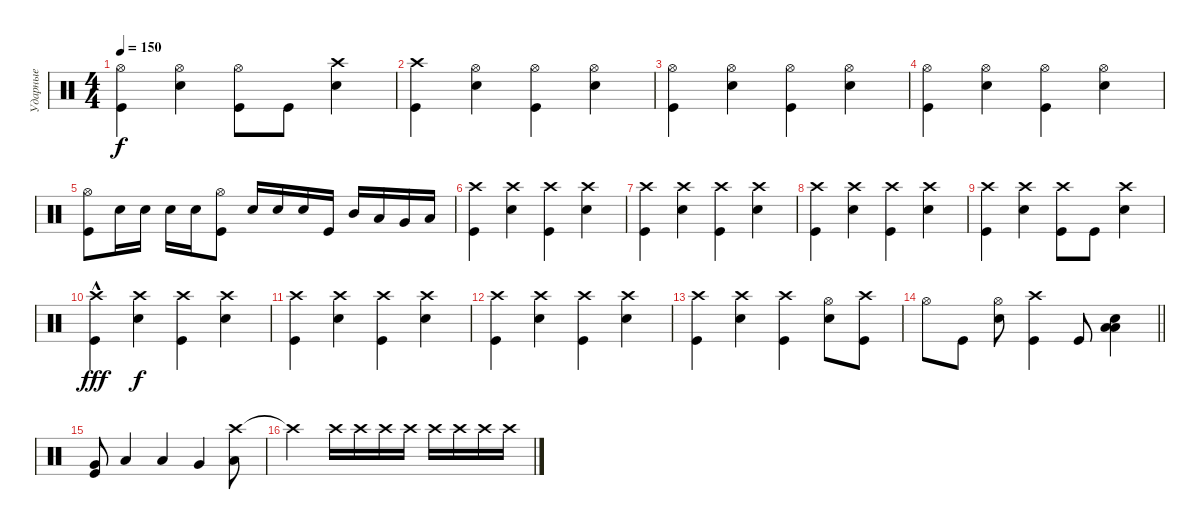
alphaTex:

\track ("Ударные" "Ударные") {instrument percussion}
\staff {score}
\articulation defaults
\ts (4 4)
\tempo 150
\clef neutral
\ks c
("Hi-Hat (open)" "Kick (hit)").4{dy f} ("Hi-Hat (open)" "Snare (hit) 2").4 ("Hi-Hat (open)" "Kick (hit)").8 "Kick (hit)".8 ("Crash high (hit)" "Snare (hit) 2").4 |
("Crash high (hit)" "Kick (hit)").4 ("Hi-Hat (open)" "Snare (hit) 2").4 ("Hi-Hat (open)" "Kick (hit)").4 ("Hi-Hat (open)" "Snare (hit) 2").4 |
("Hi-Hat (open)" "Kick (hit)").4 ("Hi-Hat (open)" "Snare (hit) 2").4 ("Hi-Hat (open)" "Kick (hit)").4 ("Hi-Hat (open)" "Snare (hit) 2").4 |
("Hi-Hat (open)" "Kick (hit)").4 ("Hi-Hat (open)" "Snare (hit) 2").4 ("Hi-Hat (open)" "Kick (hit)").4 ("Hi-Hat (open)" "Snare (hit) 2").4 |
("Hi-Hat (open)" "Kick (hit)").8 "Snare (hit) 2".16 "Snare (hit) 2".16 "Snare (hit) 2".16 "Snare (hit) 2".16 ("Hi-Hat (open)" "Kick (hit)").8 "Snare (hit) 2".16 "Snare (hit) 2".16 "Snare (hit) 2".16 "Kick (hit)".16 "Mid Tom (hit)".16 "Low Tom (hit)".16 "Very Low Tom (hit)".16 "Low Floor Tom (hit)".16 |
("Crash high (hit)" "Kick (hit)").4 ("Crash high (hit)" "Snare (hit) 2").4 ("Crash high (hit)" "Kick (hit)").4 ("Crash high (hit)" "Snare (hit) 2").4 |
("Crash high (hit)" "Kick (hit)").4 ("Crash high (hit)" "Snare (hit) 2").4 ("Crash high (hit)" "Kick (hit)").4 ("Crash high (hit)" "Snare (hit) 2").4 |
("Crash high (hit)" "Kick (hit)").4 ("Crash high (hit)" "Snare (hit) 2").4 ("Crash high (hit)" "Kick (hit)").4 ("Crash high (hit)" "Snare (hit) 2").4 |
("Crash high (hit)" "Kick (hit)").4 ("Crash high (hit)" "Snare (hit) 2").4 ("Crash high (hit)" "Kick (hit)").8 "Kick (hit)".8 ("Crash high (hit)" "Snare (hit) 2").4 |
("Crash high (hit)"{hac} "Kick (hit)").4{dy fff} ("Crash high (hit)" "Snare (hit) 2").4{dy f} ("Crash high (hit)" "Kick (hit)").4 ("Crash high (hit)" "Snare (hit) 2").4 |
("Crash high (hit)" "Kick (hit)").4 ("Crash high (hit)" "Snare (hit) 2").4 ("Crash high (hit)" "Kick (hit)").4 ("Crash high (hit)" "Snare (hit) 2").4 |
("Crash high (hit)" "Kick (hit)").4 ("Crash high (hit)" "Snare (hit) 2").4 ("Crash high (hit)" "Kick (hit)").4 ("Crash high (hit)" "Snare (hit) 2").4 |
("Crash high (hit)" "Kick (hit)").4 ("Crash high (hit)" "Snare (hit) 2").4 ("Crash high (hit)" "Kick (hit)").4 ("Hi-Hat (open)" "Snare (hit) 2").8 ("Crash high (hit)" "Kick (hit)").8 |
\barLineRight lightlight "Hi-Hat (open)".8 "Kick (hit)".8
("Hi-Hat (open)" "Snare (hit) 2").8 ("Crash high (hit)" "Kick (hit)").4 "Kick (hit)".8 ("Low Tom (hit)" "Low Tom (hit)" "Snare (hit) 2").4 |
("Kick (hit)" "Very Low Tom (hit)").8 "Low Floor Tom (hit)".4 "Low Floor Tom (hit)".4 "Very Low Tom (hit)".4 ("Crash high (hit)" "Low Tom (hit)").8 |
"Crash high (hit)"{t}.2 "Crash high (hit)".16 "Crash high (hit)".16 "Crash high (hit)".16 "Crash high (hit)".16 "Crash high (hit)".16 "Crash high (hit)".16 "Crash high (hit)".16 "Crash high (hit)".16
